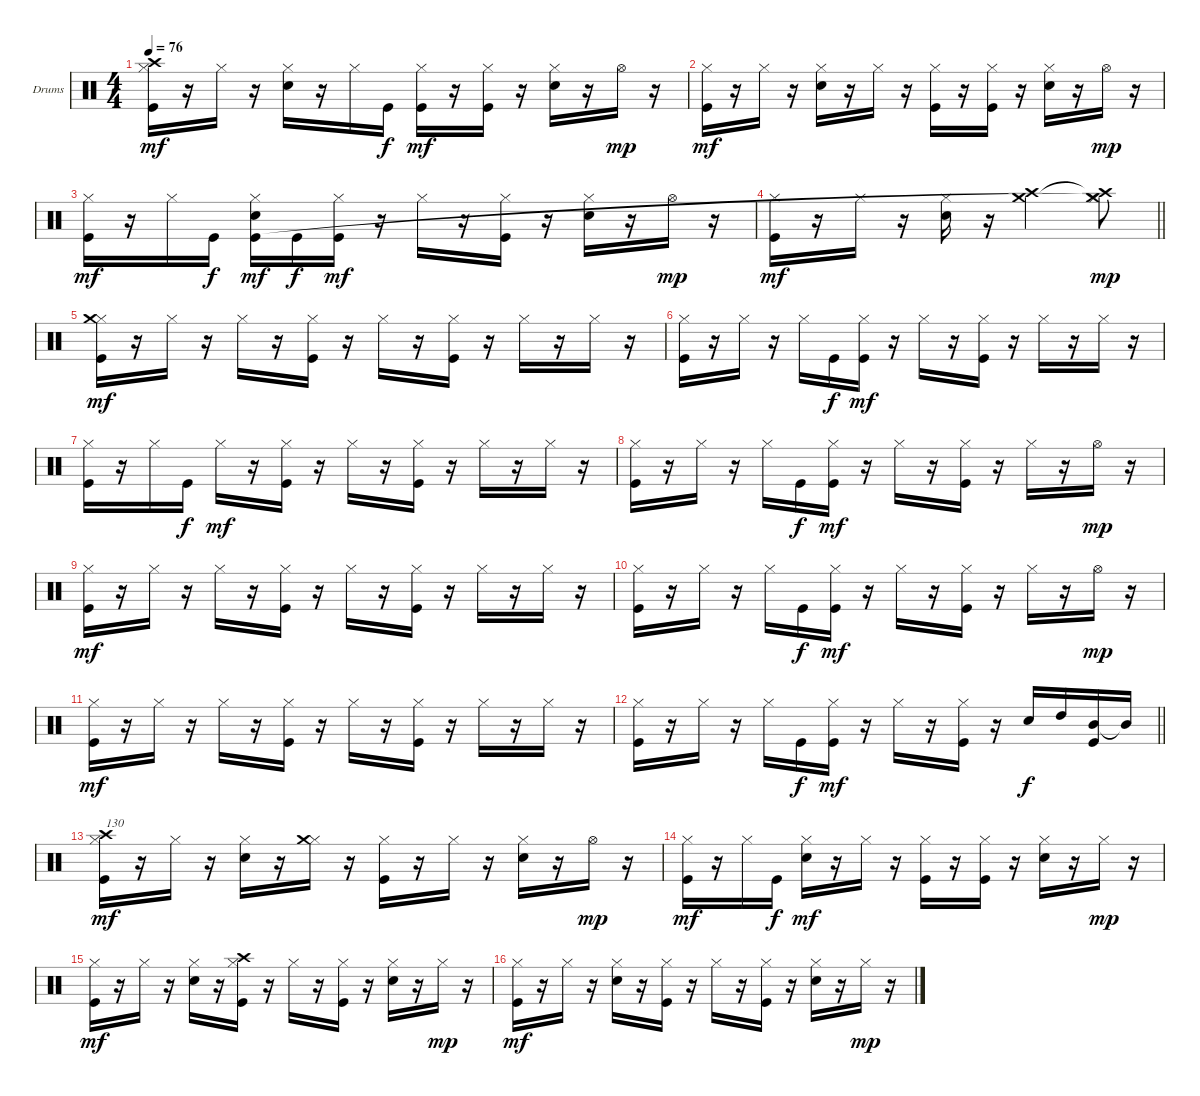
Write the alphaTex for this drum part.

\bracketExtendMode groupsimilarinstruments
\firstSystemTrackNameOrientation horizontal
\otherSystemsTrackNameOrientation horizontal
\track ("Drumkit" "Drums") {instrument percussion}
\staff {score}
\articulation defaults
\ts (4 4)
\tempo 76
\clef neutral
\ks c
("Hi-Hat (closed)" "Crash high (hit)" "Kick (hit)").16{dy mf} r.16 "Hi-Hat (closed)".16 r.16 ("Hi-Hat (closed)" "Snare (hit) 2").16 r.16 "Hi-Hat (closed)".16 "Kick (hit)".16{dy f} ("Hi-Hat (closed)" "Kick (hit)").16{dy mf} r.16 ("Hi-Hat (closed)" "Kick (hit)").16 r.16 ("Hi-Hat (closed)" "Snare (hit) 2").16 r.16 "Hi-Hat (open)".16{dy mp} r.16 |
("Hi-Hat (closed)" "Kick (hit)").16{dy mf} r.16 "Hi-Hat (closed)".16 r.16 ("Hi-Hat (closed)" "Snare (hit) 2").16 r.16 "Hi-Hat (closed)".16 r.16 ("Hi-Hat (closed)" "Kick (hit)").16 r.16 ("Hi-Hat (closed)" "Kick (hit)").16 r.16 ("Hi-Hat (closed)" "Snare (hit) 2").16 r.16 "Hi-Hat (open)".16{dy mp} r.16 |
("Hi-Hat (closed)" "Kick (hit)").16{dy mf} r.16 "Hi-Hat (closed)".16 "Kick (hit)".16{dy f} ("Hi-Hat (closed)" "Snare (hit) 2" "Kick (hit)").16{dy mf} "Kick (hit)".16{dy f} ("Hi-Hat (closed)" "Kick (hit)").16{dy mf} r.16 "Hi-Hat (closed)".16 r.16 ("Hi-Hat (closed)" "Kick (hit)").16 r.16 ("Hi-Hat (closed)" "Snare (hit) 2").16 r.16 "Hi-Hat (open)".16{dy mp} r.16 |
\barLineRight lightlight
("Hi-Hat (closed)" "Kick (hit)").16{dy mf} r.16 "Hi-Hat (closed)".16 r.16 ("Hi-Hat (closed)" "Snare (hit) 2").16 r.16 ("Crash high (hit)" "Crash medium (hit)").2 ("Hi-Hat (closed)" "Crash high (hit)"{t} "Crash medium (hit)"{t}).8{dy mp} |
("Hi-Hat (closed)" "Crash medium (hit)" "Kick (hit)").16{dy mf} r.16 "Hi-Hat (closed)".16 r.16 "Hi-Hat (closed)".16 r.16 ("Hi-Hat (closed)" "Kick (hit)").16 r.16 "Hi-Hat (closed)".16 r.16 ("Hi-Hat (closed)" "Kick (hit)").16 r.16 "Hi-Hat (closed)".16 r.16 "Hi-Hat (closed)".16 r.16 |
("Hi-Hat (closed)" "Kick (hit)").16 r.16 "Hi-Hat (closed)".16 r.16 "Hi-Hat (closed)".16 "Kick (hit)".16{dy f} ("Hi-Hat (closed)" "Kick (hit)").16{dy mf} r.16 "Hi-Hat (closed)".16 r.16 ("Hi-Hat (closed)" "Kick (hit)").16 r.16 "Hi-Hat (closed)".16 r.16 "Hi-Hat (closed)".16 r.16 |
("Hi-Hat (closed)" "Kick (hit)").16 r.16 "Hi-Hat (closed)".16 "Kick (hit)".16{dy f} "Hi-Hat (closed)".16{dy mf} r.16 ("Hi-Hat (closed)" "Kick (hit)").16 r.16 "Hi-Hat (closed)".16 r.16 ("Hi-Hat (closed)" "Kick (hit)").16 r.16 "Hi-Hat (closed)".16 r.16 "Hi-Hat (closed)".16 r.16 |
("Hi-Hat (closed)" "Kick (hit)").16 r.16 "Hi-Hat (closed)".16 r.16 "Hi-Hat (closed)".16 "Kick (hit)".16{dy f} ("Hi-Hat (closed)" "Kick (hit)").16{dy mf} r.16 "Hi-Hat (closed)".16 r.16 ("Hi-Hat (closed)" "Kick (hit)").16 r.16 "Hi-Hat (closed)".16 r.16 "Hi-Hat (open)".16{dy mp} r.16 |
("Hi-Hat (closed)" "Kick (hit)").16{dy mf} r.16 "Hi-Hat (closed)".16 r.16 "Hi-Hat (closed)".16 r.16 ("Hi-Hat (closed)" "Kick (hit)").16 r.16 "Hi-Hat (closed)".16 r.16 ("Hi-Hat (closed)" "Kick (hit)").16 r.16 "Hi-Hat (closed)".16 r.16 "Hi-Hat (closed)".16 r.16 |
("Hi-Hat (closed)" "Kick (hit)").16 r.16 "Hi-Hat (closed)".16 r.16 "Hi-Hat (closed)".16 "Kick (hit)".16{dy f} ("Hi-Hat (closed)" "Kick (hit)").16{dy mf} r.16 "Hi-Hat (closed)".16 r.16 ("Hi-Hat (closed)" "Kick (hit)").16 r.16 "Hi-Hat (closed)".16 r.16 "Hi-Hat (open)".16{dy mp} r.16 |
("Hi-Hat (closed)" "Kick (hit)").16{dy mf} r.16 "Hi-Hat (closed)".16 r.16 "Hi-Hat (closed)".16 r.16 ("Hi-Hat (closed)" "Kick (hit)").16 r.16 "Hi-Hat (closed)".16 r.16 ("Hi-Hat (closed)" "Kick (hit)").16 r.16 "Hi-Hat (closed)".16 r.16 "Hi-Hat (closed)".16 r.16 |
\barLineRight lightlight
("Hi-Hat (closed)" "Kick (hit)").16 r.16 "Hi-Hat (closed)".16 r.16 "Hi-Hat (closed)".16 "Kick (hit)".16{dy f} ("Hi-Hat (closed)" "Kick (hit)").16{dy mf} r.16 "Hi-Hat (closed)".16 r.16 ("Hi-Hat (closed)" "Kick (hit)").16 r.16 "Snare (hit) 2".16{dy f} "High Tom (hit)".16 ("Mid Tom (hit)" "Kick (hit)").16 "Mid Tom (hit)"{t}.16 |
("Hi-Hat (closed)" "Crash high (hit)" "Kick (hit)").16{txt "130" dy mf} r.16 "Hi-Hat (closed)".16 r.16 ("Hi-Hat (closed)" "Snare (hit) 2").16 r.16 ("Hi-Hat (closed)" "Crash medium (hit)").16 r.16 ("Hi-Hat (closed)" "Kick (hit)").16 r.16 "Hi-Hat (closed)".16 r.16 ("Hi-Hat (closed)" "Snare (hit) 2").16 r.16 "Hi-Hat (open)".16{dy mp} r.16 |
("Hi-Hat (closed)" "Kick (hit)").16{dy mf} r.16 "Hi-Hat (closed)".16 "Kick (hit)".16{dy f} ("Hi-Hat (closed)" "Snare (hit) 2").16{dy mf} r.16 "Hi-Hat (closed)".16 r.16 ("Hi-Hat (closed)" "Kick (hit)").16 r.16 ("Hi-Hat (closed)" "Kick (hit)").16 r.16 ("Hi-Hat (closed)" "Snare (hit) 2").16 r.16 "Hi-Hat (closed)".16{dy mp} r.16 |
("Hi-Hat (closed)" "Kick (hit)").16{dy mf} r.16 "Hi-Hat (closed)".16 r.16 ("Hi-Hat (closed)" "Snare (hit) 2").16 r.16 ("Hi-Hat (closed)" "Crash high (hit)" "Kick (hit)").16 r.16 "Hi-Hat (closed)".16 r.16 ("Hi-Hat (closed)" "Kick (hit)").16 r.16 ("Hi-Hat (closed)" "Snare (hit) 2").16 r.16 "Hi-Hat (closed)".16{dy mp} r.16 |
("Hi-Hat (closed)" "Kick (hit)").16{dy mf} r.16 "Hi-Hat (closed)".16 r.16 ("Hi-Hat (closed)" "Snare (hit) 2").16 r.16 ("Hi-Hat (closed)" "Kick (hit)").16 r.16 "Hi-Hat (closed)".16 r.16 ("Hi-Hat (closed)" "Kick (hit)").16 r.16 ("Hi-Hat (closed)" "Snare (hit) 2").16 r.16 "Hi-Hat (closed)".16{dy mp} r.16
